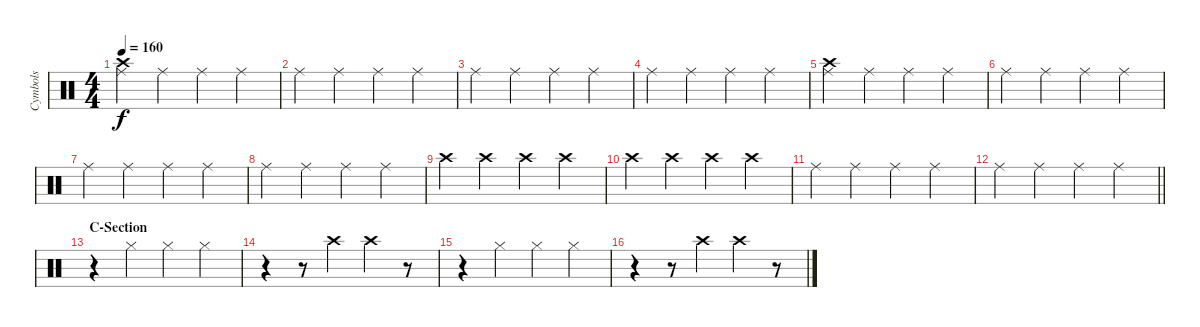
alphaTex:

\track ("Cymbols" "Cymbols") {instrument percussion}
\staff {score}
\articulation defaults
\ts (4 4)
\tempo 160
\clef neutral
\ks c
("Crash high (hit)" "Ride (middle)").4{dy f} "Ride (middle)".4 "Ride (middle)".4 "Ride (middle)".4 |
"Ride (middle)".4 "Ride (middle)".4 "Ride (middle)".4 "Ride (middle)".4 |
"Ride (middle)".4 "Ride (middle)".4 "Ride (middle)".4 "Ride (middle)".4 |
"Ride (middle)".4 "Ride (middle)".4 "Ride (middle)".4 "Ride (middle)".4 |
("Crash high (hit)" "Ride (middle)").4 "Ride (middle)".4 "Ride (middle)".4 "Ride (middle)".4 |
"Ride (middle)".4 "Ride (middle)".4 "Ride (middle)".4 "Ride (middle)".4 |
"Ride (middle)".4 "Ride (middle)".4 "Ride (middle)".4 "Ride (middle)".4 |
"Ride (middle)".4 "Ride (middle)".4 "Ride (middle)".4 "Ride (middle)".4 |
"Crash high (hit)".4 "Crash high (hit)".4 "Crash high (hit)".4 "Crash high (hit)".4 |
"Crash high (hit)".4 "Crash high (hit)".4 "Crash high (hit)".4 "Crash high (hit)".4 |
"Ride (middle)".4 "Ride (middle)".4 "Ride (middle)".4 "Ride (middle)".4 |
\barLineRight lightlight "Ride (middle)".4 "Ride (middle)".4 "Ride (middle)".4 "Ride (middle)".4
|
\section ("" "C-Section")
r.4 "Hi-Hat (closed)".4 "Hi-Hat (closed)".4 "Hi-Hat (closed)".4 |
r.4 r.8 "Crash high (hit)".4 "Crash high (hit)".4 r.8 |
r.4 "Hi-Hat (closed)".4 "Hi-Hat (closed)".4 "Hi-Hat (closed)".4 |
r.4 r.8 "Crash high (hit)".4 "Crash high (hit)".4 r.8
